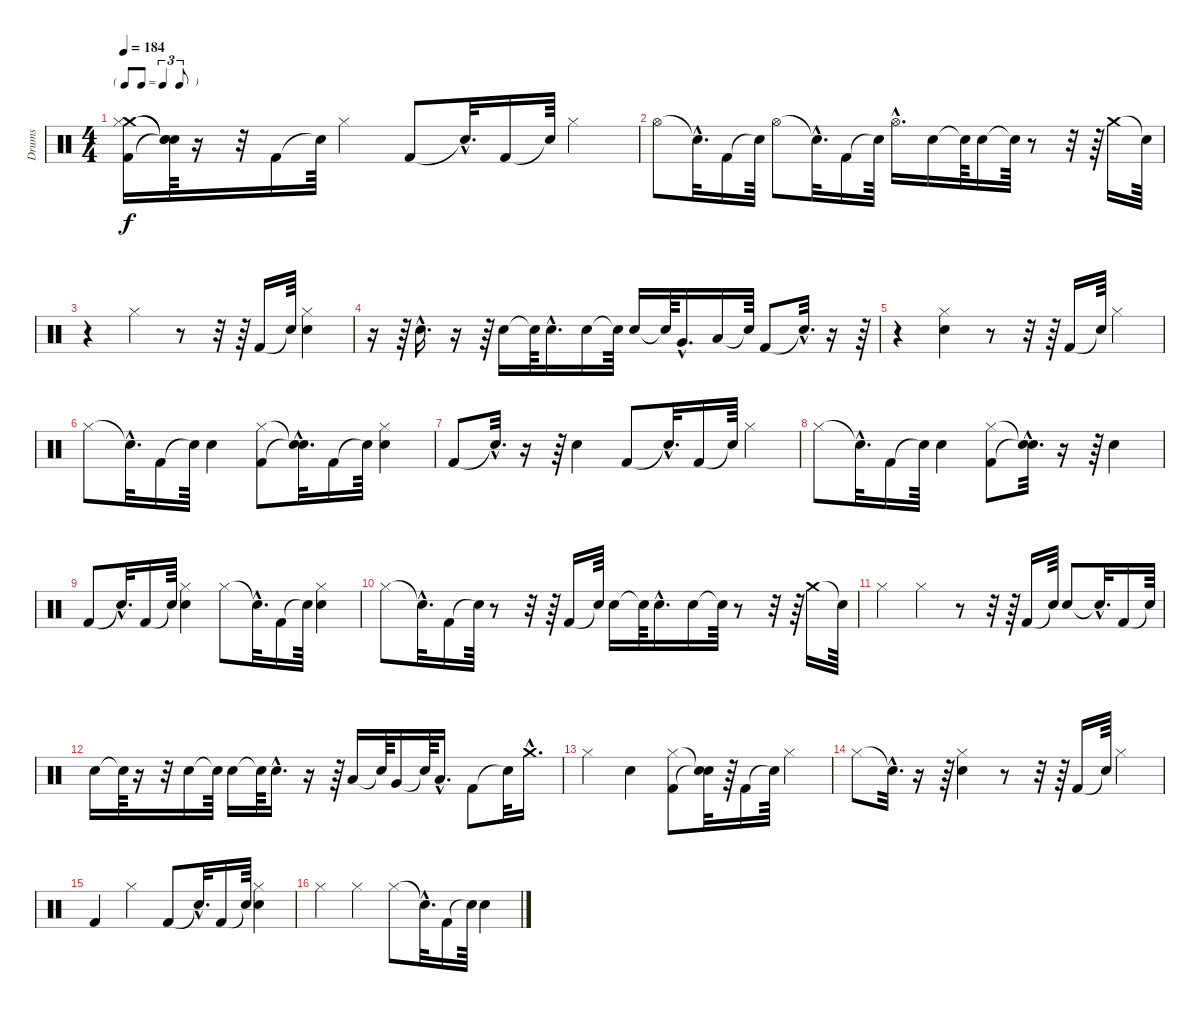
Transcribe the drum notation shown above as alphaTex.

\track ("Drums" "Drums") {instrument percussion}
\staff {score}
\articulation defaults
\ts (4 4)
\tf triplet8th
\tempo 184
\clef neutral
\ks c
("Crash medium (hit)" "Hi-Hat (closed)" "Kick (hit) 2").16{dy f} ("Snare (hit)"{t} "Snare (hit)"{t} "Snare (hit)"{t}).64 r.16 r.32 "Kick (hit) 2".16 "Snare (hit)"{t}.64 "Hi-Hat (closed)".4 "Kick (hit) 2".8 "Snare (hit)"{hac t}.32{d} "Kick (hit) 2".16 "Snare (hit)"{t}.64 "Hi-Hat (closed)".4 |
"Hi-Hat (open)".8 "Snare (hit)"{hac t}.32{d} "Kick (hit) 2".16 "Snare (hit)"{t}.64 "Hi-Hat (open)".8 "Snare (hit)"{hac t}.32{d} "Kick (hit) 2".16 "Snare (hit)"{t}.64 "Hi-Hat (open)"{hac}.16{d} "Snare (hit) 2".16 "Snare (hit)"{t}.64 "Snare (hit) 2".16 "Snare (hit)"{t}.64 r.8 r.32 r.64 "Crash medium (hit)".16 "Snare (hit)"{t}.64 |
r.4 "Hi-Hat (closed)".4 r.8 r.32 r.64 "Kick (hit) 2".16 "Snare (hit)"{t}.64 ("Hi-Hat (closed)" "Snare (hit) 2").4 |
r.16 r.64 "Snare (hit) 2"{hac}.16{d} r.16 r.64 "Snare (hit) 2".16 "Snare (hit)"{t}.64 "Snare (hit) 2"{hac}.16{d} "Snare (hit) 2".16 "Snare (hit)"{t}.64 "Snare (hit) 2".16 "Snare (hit)"{t}.64 "Very Low Tom (hit)"{hac}.16{d} "Low Floor Tom (hit)".16 "Snare (hit)"{t}.64 "Kick (hit) 2".8 "Snare (hit)"{hac t}.32{d} r.16 r.64 |
r.4 ("Hi-Hat (closed)" "Snare (hit) 2").4 r.8 r.32 r.64 "Kick (hit) 2".16 "Snare (hit)"{t}.64 "Hi-Hat (closed)".4 |
"Hi-Hat (closed)".8 "Snare (hit)"{hac t}.32{d} "Kick (hit) 2".16 "Snare (hit)"{t}.64 "Snare (hit) 2".4 ("Hi-Hat (closed)" "Kick (hit) 2").8 ("Snare (hit)"{hac t} "Snare (hit)"{hac t}).32{d} "Kick (hit) 2".16 "Snare (hit)"{t}.64 ("Hi-Hat (closed)" "Snare (hit) 2").4 |
"Kick (hit) 2".8 "Snare (hit)"{hac t}.32{d} r.16 r.64 "Snare (hit) 2".4 "Kick (hit) 2".8 "Snare (hit)"{hac t}.32{d} "Kick (hit) 2".16 "Snare (hit)"{t}.64 "Hi-Hat (closed)".4 |
"Hi-Hat (closed)".8 "Snare (hit)"{hac t}.32{d} "Kick (hit) 2".16 "Snare (hit)"{t}.64 "Snare (hit) 2".4 ("Hi-Hat (closed)" "Kick (hit) 2").8 ("Snare (hit)"{hac t} "Snare (hit)"{hac t}).32{d} r.16 r.64 "Snare (hit) 2".4 |
"Kick (hit) 2".8 "Snare (hit)"{hac t}.32{d} "Kick (hit) 2".16 "Snare (hit)"{t}.64 ("Hi-Hat (closed)" "Snare (hit) 2").4 "Hi-Hat (closed)".8 "Snare (hit)"{hac t}.32{d} "Kick (hit) 2".16 "Snare (hit)"{t}.64 ("Hi-Hat (closed)" "Snare (hit) 2").4 |
"Hi-Hat (closed)".8 "Snare (hit)"{hac t}.32{d} "Kick (hit) 2".16 "Snare (hit)"{t}.64 r.8 r.32 r.64 "Kick (hit) 2".16 "Snare (hit)"{t}.64 "Snare (hit) 2".16 "Snare (hit)"{t}.64 "Snare (hit) 2"{hac}.16{d} "Snare (hit) 2".16 "Snare (hit)"{t}.64 r.8 r.32 r.64 "Crash medium (hit)".16 "Snare (hit)"{t}.64 |
"Hi-Hat (closed)".4 "Hi-Hat (closed)".4 r.8 r.32 r.64 "Kick (hit) 2".16 "Snare (hit)"{t}.64 "Snare (hit) 2".8 "Snare (hit)"{hac t}.32{d} "Kick (hit) 2".16 "Snare (hit)"{t}.64 |
"Snare (hit) 2".16 "Snare (hit)"{t}.64 r.16 r.32 "Snare (hit) 2".16 "Snare (hit)"{t}.64 "Snare (hit) 2".16 "Snare (hit)"{t}.64 "Snare (hit) 2"{hac}.16{d} r.16 r.64 "Low Tom (hit)".16 "Snare (hit)"{t}.64 "Very Low Tom (hit)".16 "Snare (hit)"{t}.64 "Low Floor Tom (hit)"{hac}.16{d} "Kick (hit) 2".8 "Snare (hit)"{t}.32 "Crash medium (hit)"{hac}.16{d} |
"Hi-Hat (closed)".4 "Snare (hit) 2".4 ("Hi-Hat (closed)" "Kick (hit) 2").8 ("Snare (hit)"{t} "Snare (hit)"{t}).32 r.64 "Kick (hit) 2".16 "Snare (hit)"{t}.64 "Hi-Hat (closed)".4 |
"Hi-Hat (closed)".8 "Snare (hit)"{hac t}.32{d} r.16 r.64 ("Hi-Hat (closed)" "Snare (hit) 2").4 r.8 r.32 r.64 "Kick (hit) 2".16 "Snare (hit)"{t}.64 "Hi-Hat (closed)".4 |
"Kick (hit) 2".4 "Hi-Hat (closed)".4 "Kick (hit) 2".8 "Snare (hit)"{hac t}.32{d} "Kick (hit) 2".16 "Snare (hit)"{t}.64 ("Hi-Hat (closed)" "Snare (hit) 2").4 |
"Hi-Hat (closed)".4 "Hi-Hat (closed)".4 "Hi-Hat (closed)".8 "Snare (hit)"{hac t}.32{d} "Kick (hit) 2".16 "Snare (hit)"{t}.64 "Snare (hit) 2".4
